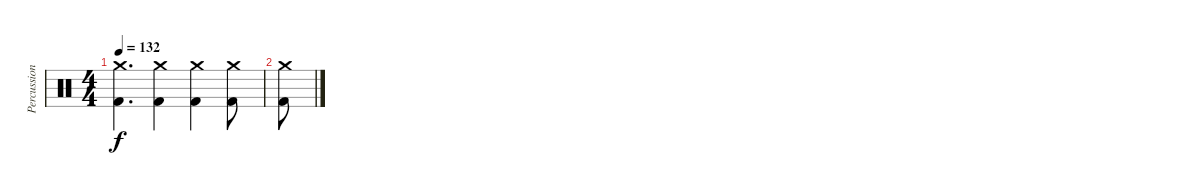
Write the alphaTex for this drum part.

\track ("Percussion" "Percussion") {instrument percussion}
\staff {score}
\articulation defaults
\ts (4 4)
\tempo 132
\clef neutral
\ks c
("Crash medium (hit)" "Kick (hit) 2").4{d dy f} ("Crash medium (hit)" "Kick (hit) 2").4 ("Crash medium (hit)" "Kick (hit) 2").4 ("Crash medium (hit)" "Kick (hit) 2").8 |
("Crash medium (hit)" "Kick (hit) 2").8
